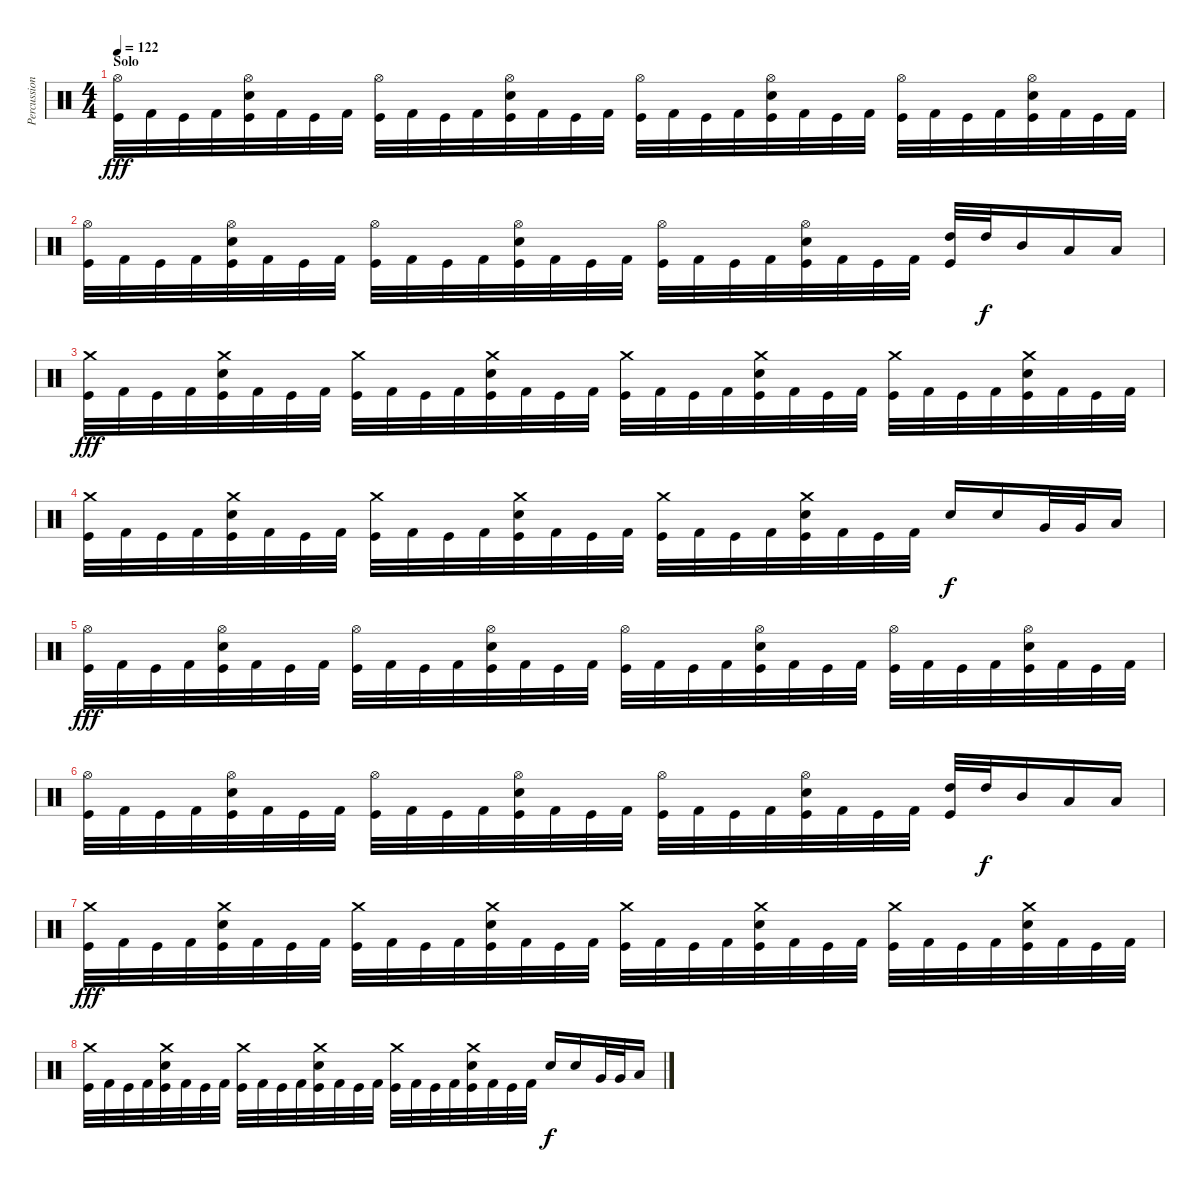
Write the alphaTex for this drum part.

\track ("Percussion" "Percussion") {instrument percussion}
\staff {score}
\articulation defaults
\ts (4 4)
\section ("" "Solo")
\tempo 122
\clef neutral
\ks c
("Hi-Hat (open)" "Kick (hit)").32{dy fff} "Kick (hit) 2".32 "Kick (hit)".32 "Kick (hit) 2".32 ("Hi-Hat (open)" "Snare (hit) 2" "Kick (hit)").32 "Kick (hit) 2".32 "Kick (hit)".32 "Kick (hit) 2".32 ("Hi-Hat (open)" "Kick (hit)").32 "Kick (hit) 2".32 "Kick (hit)".32 "Kick (hit) 2".32 ("Hi-Hat (open)" "Snare (hit) 2" "Kick (hit)").32 "Kick (hit) 2".32 "Kick (hit)".32 "Kick (hit) 2".32 ("Hi-Hat (open)" "Kick (hit)").32 "Kick (hit) 2".32 "Kick (hit)".32 "Kick (hit) 2".32 ("Hi-Hat (open)" "Snare (hit) 2" "Kick (hit)").32 "Kick (hit) 2".32 "Kick (hit)".32 "Kick (hit) 2".32 ("Hi-Hat (open)" "Kick (hit)").32 "Kick (hit) 2".32 "Kick (hit)".32 "Kick (hit) 2".32 ("Hi-Hat (open)" "Snare (hit) 2" "Kick (hit)").32 "Kick (hit) 2".32 "Kick (hit)".32 "Kick (hit) 2".32 |
("Hi-Hat (open)" "Kick (hit)").32 "Kick (hit) 2".32 "Kick (hit)".32 "Kick (hit) 2".32 ("Hi-Hat (open)" "Snare (hit) 2" "Kick (hit)").32 "Kick (hit) 2".32 "Kick (hit)".32 "Kick (hit) 2".32 ("Hi-Hat (open)" "Kick (hit)").32 "Kick (hit) 2".32 "Kick (hit)".32 "Kick (hit) 2".32 ("Hi-Hat (open)" "Snare (hit) 2" "Kick (hit)").32 "Kick (hit) 2".32 "Kick (hit)".32 "Kick (hit) 2".32 ("Hi-Hat (open)" "Kick (hit)").32 "Kick (hit) 2".32 "Kick (hit)".32 "Kick (hit) 2".32 ("Hi-Hat (open)" "Snare (hit) 2" "Kick (hit)").32 "Kick (hit) 2".32 "Kick (hit)".32 "Kick (hit) 2".32 ("High Tom (hit)" "Kick (hit)").32 "High Tom (hit)".32{dy f} "Mid Tom (hit)".16 "Low Tom (hit)".16 "Low Tom (hit)".16 |
("Crash medium (hit)" "Kick (hit)").32{dy fff} "Kick (hit) 2".32 "Kick (hit)".32 "Kick (hit) 2".32 ("Crash medium (hit)" "Snare (hit) 2" "Kick (hit)").32 "Kick (hit) 2".32 "Kick (hit)".32 "Kick (hit) 2".32 ("Crash medium (hit)" "Kick (hit)").32 "Kick (hit) 2".32 "Kick (hit)".32 "Kick (hit) 2".32 ("Crash medium (hit)" "Snare (hit) 2" "Kick (hit)").32 "Kick (hit) 2".32 "Kick (hit)".32 "Kick (hit) 2".32 ("Crash medium (hit)" "Kick (hit)").32 "Kick (hit) 2".32 "Kick (hit)".32 "Kick (hit) 2".32 ("Crash medium (hit)" "Snare (hit) 2" "Kick (hit)").32 "Kick (hit) 2".32 "Kick (hit)".32 "Kick (hit) 2".32 ("Crash medium (hit)" "Kick (hit)").32 "Kick (hit) 2".32 "Kick (hit)".32 "Kick (hit) 2".32 ("Crash medium (hit)" "Snare (hit) 2" "Kick (hit)").32 "Kick (hit) 2".32 "Kick (hit)".32 "Kick (hit) 2".32 |
("Crash medium (hit)" "Kick (hit)").32 "Kick (hit) 2".32 "Kick (hit)".32 "Kick (hit) 2".32 ("Crash medium (hit)" "Snare (hit) 2" "Kick (hit)").32 "Kick (hit) 2".32 "Kick (hit)".32 "Kick (hit) 2".32 ("Crash medium (hit)" "Kick (hit)").32 "Kick (hit) 2".32 "Kick (hit)".32 "Kick (hit) 2".32 ("Crash medium (hit)" "Snare (hit) 2" "Kick (hit)").32 "Kick (hit) 2".32 "Kick (hit)".32 "Kick (hit) 2".32 ("Crash medium (hit)" "Kick (hit)").32 "Kick (hit) 2".32 "Kick (hit)".32 "Kick (hit) 2".32 ("Crash medium (hit)" "Snare (hit) 2" "Kick (hit)").32 "Kick (hit) 2".32 "Kick (hit)".32 "Kick (hit) 2".32 "Snare (hit) 2".16{dy f} "Snare (hit) 2".16 "Very Low Tom (hit)".32 "Very Low Tom (hit)".32 "Low Floor Tom (hit)".16 |
("Hi-Hat (open)" "Kick (hit)").32{dy fff} "Kick (hit) 2".32 "Kick (hit)".32 "Kick (hit) 2".32 ("Hi-Hat (open)" "Snare (hit) 2" "Kick (hit)").32 "Kick (hit) 2".32 "Kick (hit)".32 "Kick (hit) 2".32 ("Hi-Hat (open)" "Kick (hit)").32 "Kick (hit) 2".32 "Kick (hit)".32 "Kick (hit) 2".32 ("Hi-Hat (open)" "Snare (hit) 2" "Kick (hit)").32 "Kick (hit) 2".32 "Kick (hit)".32 "Kick (hit) 2".32 ("Hi-Hat (open)" "Kick (hit)").32 "Kick (hit) 2".32 "Kick (hit)".32 "Kick (hit) 2".32 ("Hi-Hat (open)" "Snare (hit) 2" "Kick (hit)").32 "Kick (hit) 2".32 "Kick (hit)".32 "Kick (hit) 2".32 ("Hi-Hat (open)" "Kick (hit)").32 "Kick (hit) 2".32 "Kick (hit)".32 "Kick (hit) 2".32 ("Hi-Hat (open)" "Snare (hit) 2" "Kick (hit)").32 "Kick (hit) 2".32 "Kick (hit)".32 "Kick (hit) 2".32 |
("Hi-Hat (open)" "Kick (hit)").32 "Kick (hit) 2".32 "Kick (hit)".32 "Kick (hit) 2".32 ("Hi-Hat (open)" "Snare (hit) 2" "Kick (hit)").32 "Kick (hit) 2".32 "Kick (hit)".32 "Kick (hit) 2".32 ("Hi-Hat (open)" "Kick (hit)").32 "Kick (hit) 2".32 "Kick (hit)".32 "Kick (hit) 2".32 ("Hi-Hat (open)" "Snare (hit) 2" "Kick (hit)").32 "Kick (hit) 2".32 "Kick (hit)".32 "Kick (hit) 2".32 ("Hi-Hat (open)" "Kick (hit)").32 "Kick (hit) 2".32 "Kick (hit)".32 "Kick (hit) 2".32 ("Hi-Hat (open)" "Snare (hit) 2" "Kick (hit)").32 "Kick (hit) 2".32 "Kick (hit)".32 "Kick (hit) 2".32 ("High Tom (hit)" "Kick (hit)").32 "High Tom (hit)".32{dy f} "Mid Tom (hit)".16 "Low Tom (hit)".16 "Low Tom (hit)".16 |
("Crash medium (hit)" "Kick (hit)").32{dy fff} "Kick (hit) 2".32 "Kick (hit)".32 "Kick (hit) 2".32 ("Crash medium (hit)" "Snare (hit) 2" "Kick (hit)").32 "Kick (hit) 2".32 "Kick (hit)".32 "Kick (hit) 2".32 ("Crash medium (hit)" "Kick (hit)").32 "Kick (hit) 2".32 "Kick (hit)".32 "Kick (hit) 2".32 ("Crash medium (hit)" "Snare (hit) 2" "Kick (hit)").32 "Kick (hit) 2".32 "Kick (hit)".32 "Kick (hit) 2".32 ("Crash medium (hit)" "Kick (hit)").32 "Kick (hit) 2".32 "Kick (hit)".32 "Kick (hit) 2".32 ("Crash medium (hit)" "Snare (hit) 2" "Kick (hit)").32 "Kick (hit) 2".32 "Kick (hit)".32 "Kick (hit) 2".32 ("Crash medium (hit)" "Kick (hit)").32 "Kick (hit) 2".32 "Kick (hit)".32 "Kick (hit) 2".32 ("Crash medium (hit)" "Snare (hit) 2" "Kick (hit)").32 "Kick (hit) 2".32 "Kick (hit)".32 "Kick (hit) 2".32 |
("Crash medium (hit)" "Kick (hit)").32 "Kick (hit) 2".32 "Kick (hit)".32 "Kick (hit) 2".32 ("Crash medium (hit)" "Snare (hit) 2" "Kick (hit)").32 "Kick (hit) 2".32 "Kick (hit)".32 "Kick (hit) 2".32 ("Crash medium (hit)" "Kick (hit)").32 "Kick (hit) 2".32 "Kick (hit)".32 "Kick (hit) 2".32 ("Crash medium (hit)" "Snare (hit) 2" "Kick (hit)").32 "Kick (hit) 2".32 "Kick (hit)".32 "Kick (hit) 2".32 ("Crash medium (hit)" "Kick (hit)").32 "Kick (hit) 2".32 "Kick (hit)".32 "Kick (hit) 2".32 ("Crash medium (hit)" "Snare (hit) 2" "Kick (hit)").32 "Kick (hit) 2".32 "Kick (hit)".32 "Kick (hit) 2".32 "Snare (hit) 2".16{dy f} "Snare (hit) 2".16 "Very Low Tom (hit)".32 "Very Low Tom (hit)".32 "Low Floor Tom (hit)".16
